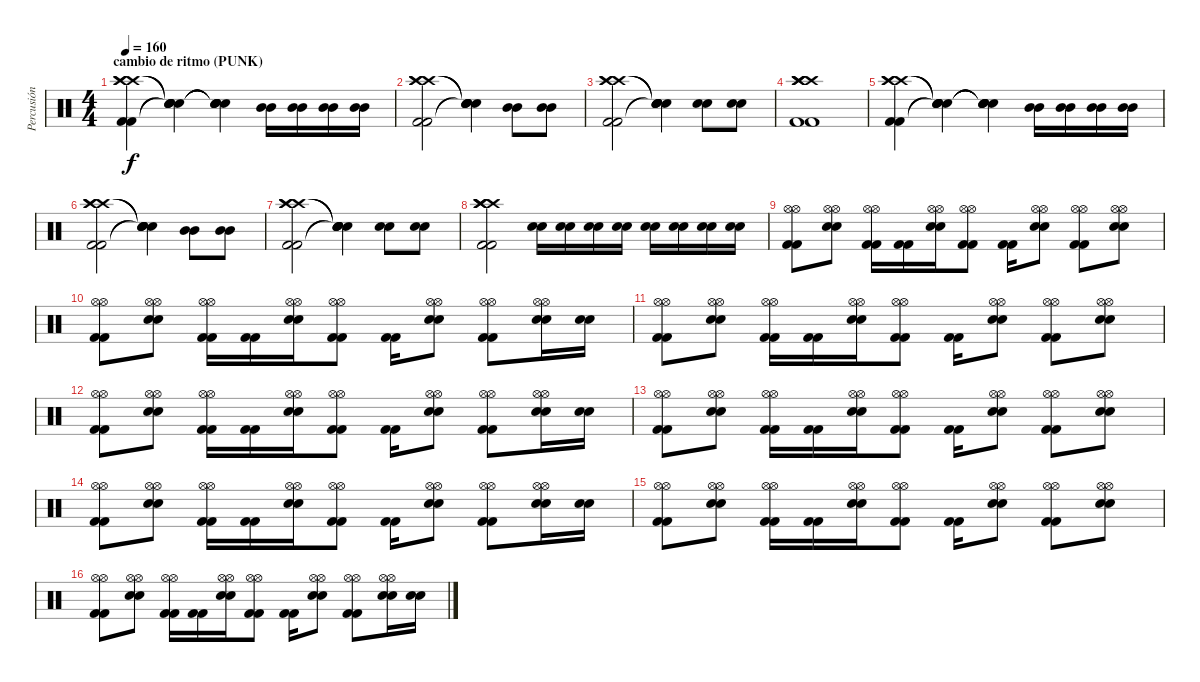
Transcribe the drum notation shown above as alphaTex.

\track ("Percusión" "Percusión") {instrument percussion}
\staff {score}
\articulation defaults
\ts (4 4)
\section ("" "cambio de ritmo (PUNK)")
\tempo 160
\clef neutral
\ks c
("Crash high (hit)" "Crash high (hit)" "Crash high (hit)" "Kick (hit) 2" "Kick (hit) 2").4{dy f} ("Snare (hit)"{t} "Snare (hit)"{t} "Snare (hit)"{t} "Snare (hit)"{t} "Snare (hit)"{t}).4 ("Snare (hit)"{t} "Snare (hit)"{t} "Snare (hit)"{t} "Snare (hit)"{t} "Snare (hit)"{t}).4 ("Mid Tom (hit)" "Mid Tom (hit)").16 ("Mid Tom (hit)" "Mid Tom (hit)").16 ("Mid Tom (hit)" "Mid Tom (hit)").16 ("Mid Tom (hit)" "Mid Tom (hit)").16 |
("Crash high (hit)" "Crash high (hit)" "Crash high (hit)" "Kick (hit) 2" "Kick (hit) 2").2 ("Snare (hit)"{t} "Snare (hit)"{t} "Snare (hit)"{t} "Snare (hit)"{t} "Snare (hit)"{t}).4 ("Mid Tom (hit)" "Mid Tom (hit)").8 ("Mid Tom (hit)" "Mid Tom (hit)").8 |
("Crash high (hit)" "Crash high (hit)" "Crash high (hit)" "Kick (hit) 2" "Kick (hit) 2").2 ("Snare (hit)"{t} "Snare (hit)"{t} "Snare (hit)"{t} "Snare (hit)"{t} "Snare (hit)"{t}).4 ("Snare (hit) 2" "Snare (hit) 2").8 ("Snare (hit) 2" "Snare (hit) 2").8 |
("Crash high (hit)" "Crash high (hit)" "Crash high (hit)" "Crash high (hit)" "Kick (hit) 2" "Kick (hit) 2").1 |
("Crash high (hit)" "Crash high (hit)" "Crash high (hit)" "Kick (hit) 2" "Kick (hit) 2").4 ("Snare (hit)"{t} "Snare (hit)"{t} "Snare (hit)"{t} "Snare (hit)"{t} "Snare (hit)"{t}).4 ("Snare (hit)"{t} "Snare (hit)"{t} "Snare (hit)"{t} "Snare (hit)"{t} "Snare (hit)"{t}).4 ("Mid Tom (hit)" "Mid Tom (hit)").16 ("Mid Tom (hit)" "Mid Tom (hit)").16 ("Mid Tom (hit)" "Mid Tom (hit)").16 ("Mid Tom (hit)" "Mid Tom (hit)").16 |
("Crash high (hit)" "Crash high (hit)" "Crash high (hit)" "Kick (hit) 2" "Kick (hit) 2").2 ("Snare (hit)"{t} "Snare (hit)"{t} "Snare (hit)"{t} "Snare (hit)"{t} "Snare (hit)"{t}).4 ("Mid Tom (hit)" "Mid Tom (hit)").8 ("Mid Tom (hit)" "Mid Tom (hit)").8 |
("Crash high (hit)" "Crash high (hit)" "Crash high (hit)" "Kick (hit) 2" "Kick (hit) 2").2 ("Snare (hit)"{t} "Snare (hit)"{t} "Snare (hit)"{t} "Snare (hit)"{t} "Snare (hit)"{t}).4 ("Snare (hit) 2" "Snare (hit) 2").8 ("Snare (hit) 2" "Snare (hit) 2").8 |
("Crash high (hit)" "Crash high (hit)" "Crash high (hit)" "Crash high (hit)" "Kick (hit) 2" "Kick (hit) 2").2 ("Snare (hit) 2" "Snare (hit) 2").16 ("Snare (hit) 2" "Snare (hit) 2").16 ("Snare (hit) 2" "Snare (hit) 2").16 ("Snare (hit) 2" "Snare (hit) 2").16 ("Snare (hit) 2" "Snare (hit) 2").16 ("Snare (hit) 2" "Snare (hit) 2").16 ("Snare (hit) 2" "Snare (hit) 2").16 ("Snare (hit) 2" "Snare (hit) 2").16 |
("Kick (hit) 2" "Kick (hit) 2" "Hi-Hat (open)" "Hi-Hat (open)").8 ("Snare (hit) 2" "Snare (hit) 2" "Hi-Hat (open)" "Hi-Hat (open)").8 ("Kick (hit) 2" "Kick (hit) 2" "Hi-Hat (open)" "Hi-Hat (open)").16 ("Kick (hit) 2" "Kick (hit) 2").16 ("Snare (hit) 2" "Snare (hit) 2" "Hi-Hat (open)" "Hi-Hat (open)").16 ("Kick (hit) 2" "Kick (hit) 2" "Hi-Hat (open)" "Hi-Hat (open)").8 ("Kick (hit) 2" "Kick (hit) 2").16 ("Snare (hit) 2" "Snare (hit) 2" "Hi-Hat (open)" "Hi-Hat (open)").8 ("Kick (hit) 2" "Kick (hit) 2" "Hi-Hat (open)" "Hi-Hat (open)").8 ("Snare (hit) 2" "Snare (hit) 2" "Hi-Hat (open)" "Hi-Hat (open)").8 |
("Kick (hit) 2" "Kick (hit) 2" "Hi-Hat (open)" "Hi-Hat (open)").8 ("Snare (hit) 2" "Snare (hit) 2" "Hi-Hat (open)" "Hi-Hat (open)").8 ("Kick (hit) 2" "Kick (hit) 2" "Hi-Hat (open)" "Hi-Hat (open)").16 ("Kick (hit) 2" "Kick (hit) 2").16 ("Snare (hit) 2" "Snare (hit) 2" "Hi-Hat (open)" "Hi-Hat (open)").16 ("Kick (hit) 2" "Kick (hit) 2" "Hi-Hat (open)" "Hi-Hat (open)").8 ("Kick (hit) 2" "Kick (hit) 2").16 ("Snare (hit) 2" "Snare (hit) 2" "Hi-Hat (open)" "Hi-Hat (open)").8 ("Kick (hit) 2" "Kick (hit) 2" "Hi-Hat (open)" "Hi-Hat (open)").8 ("Snare (hit) 2" "Snare (hit) 2" "Hi-Hat (open)" "Hi-Hat (open)").16 ("Snare (hit) 2" "Snare (hit) 2").16 |
("Kick (hit) 2" "Kick (hit) 2" "Hi-Hat (open)" "Hi-Hat (open)").8 ("Snare (hit) 2" "Snare (hit) 2" "Hi-Hat (open)" "Hi-Hat (open)").8 ("Kick (hit) 2" "Kick (hit) 2" "Hi-Hat (open)" "Hi-Hat (open)").16 ("Kick (hit) 2" "Kick (hit) 2").16 ("Snare (hit) 2" "Snare (hit) 2" "Hi-Hat (open)" "Hi-Hat (open)").16 ("Kick (hit) 2" "Kick (hit) 2" "Hi-Hat (open)" "Hi-Hat (open)").8 ("Kick (hit) 2" "Kick (hit) 2").16 ("Snare (hit) 2" "Snare (hit) 2" "Hi-Hat (open)" "Hi-Hat (open)").8 ("Kick (hit) 2" "Kick (hit) 2" "Hi-Hat (open)" "Hi-Hat (open)").8 ("Snare (hit) 2" "Snare (hit) 2" "Hi-Hat (open)" "Hi-Hat (open)").8 |
("Kick (hit) 2" "Kick (hit) 2" "Hi-Hat (open)" "Hi-Hat (open)").8 ("Snare (hit) 2" "Snare (hit) 2" "Hi-Hat (open)" "Hi-Hat (open)").8 ("Kick (hit) 2" "Kick (hit) 2" "Hi-Hat (open)" "Hi-Hat (open)").16 ("Kick (hit) 2" "Kick (hit) 2").16 ("Snare (hit) 2" "Snare (hit) 2" "Hi-Hat (open)" "Hi-Hat (open)").16 ("Kick (hit) 2" "Kick (hit) 2" "Hi-Hat (open)" "Hi-Hat (open)").8 ("Kick (hit) 2" "Kick (hit) 2").16 ("Snare (hit) 2" "Snare (hit) 2" "Hi-Hat (open)" "Hi-Hat (open)").8 ("Kick (hit) 2" "Kick (hit) 2" "Hi-Hat (open)" "Hi-Hat (open)").8 ("Snare (hit) 2" "Snare (hit) 2" "Hi-Hat (open)" "Hi-Hat (open)").16 ("Snare (hit) 2" "Snare (hit) 2").16 |
("Kick (hit) 2" "Kick (hit) 2" "Hi-Hat (open)" "Hi-Hat (open)").8 ("Snare (hit) 2" "Snare (hit) 2" "Hi-Hat (open)" "Hi-Hat (open)").8 ("Kick (hit) 2" "Kick (hit) 2" "Hi-Hat (open)" "Hi-Hat (open)").16 ("Kick (hit) 2" "Kick (hit) 2").16 ("Snare (hit) 2" "Snare (hit) 2" "Hi-Hat (open)" "Hi-Hat (open)").16 ("Kick (hit) 2" "Kick (hit) 2" "Hi-Hat (open)" "Hi-Hat (open)").8 ("Kick (hit) 2" "Kick (hit) 2").16 ("Snare (hit) 2" "Snare (hit) 2" "Hi-Hat (open)" "Hi-Hat (open)").8 ("Kick (hit) 2" "Kick (hit) 2" "Hi-Hat (open)" "Hi-Hat (open)").8 ("Snare (hit) 2" "Snare (hit) 2" "Hi-Hat (open)" "Hi-Hat (open)").8 |
("Kick (hit) 2" "Kick (hit) 2" "Hi-Hat (open)" "Hi-Hat (open)").8 ("Snare (hit) 2" "Snare (hit) 2" "Hi-Hat (open)" "Hi-Hat (open)").8 ("Kick (hit) 2" "Kick (hit) 2" "Hi-Hat (open)" "Hi-Hat (open)").16 ("Kick (hit) 2" "Kick (hit) 2").16 ("Snare (hit) 2" "Snare (hit) 2" "Hi-Hat (open)" "Hi-Hat (open)").16 ("Kick (hit) 2" "Kick (hit) 2" "Hi-Hat (open)" "Hi-Hat (open)").8 ("Kick (hit) 2" "Kick (hit) 2").16 ("Snare (hit) 2" "Snare (hit) 2" "Hi-Hat (open)" "Hi-Hat (open)").8 ("Kick (hit) 2" "Kick (hit) 2" "Hi-Hat (open)" "Hi-Hat (open)").8 ("Snare (hit) 2" "Snare (hit) 2" "Hi-Hat (open)" "Hi-Hat (open)").16 ("Snare (hit) 2" "Snare (hit) 2").16 |
("Kick (hit) 2" "Kick (hit) 2" "Hi-Hat (open)" "Hi-Hat (open)").8 ("Snare (hit) 2" "Snare (hit) 2" "Hi-Hat (open)" "Hi-Hat (open)").8 ("Kick (hit) 2" "Kick (hit) 2" "Hi-Hat (open)" "Hi-Hat (open)").16 ("Kick (hit) 2" "Kick (hit) 2").16 ("Snare (hit) 2" "Snare (hit) 2" "Hi-Hat (open)" "Hi-Hat (open)").16 ("Kick (hit) 2" "Kick (hit) 2" "Hi-Hat (open)" "Hi-Hat (open)").8 ("Kick (hit) 2" "Kick (hit) 2").16 ("Snare (hit) 2" "Snare (hit) 2" "Hi-Hat (open)" "Hi-Hat (open)").8 ("Kick (hit) 2" "Kick (hit) 2" "Hi-Hat (open)" "Hi-Hat (open)").8 ("Snare (hit) 2" "Snare (hit) 2" "Hi-Hat (open)" "Hi-Hat (open)").8 |
("Kick (hit) 2" "Kick (hit) 2" "Hi-Hat (open)" "Hi-Hat (open)").8 ("Snare (hit) 2" "Snare (hit) 2" "Hi-Hat (open)" "Hi-Hat (open)").8 ("Kick (hit) 2" "Kick (hit) 2" "Hi-Hat (open)" "Hi-Hat (open)").16 ("Kick (hit) 2" "Kick (hit) 2").16 ("Snare (hit) 2" "Snare (hit) 2" "Hi-Hat (open)" "Hi-Hat (open)").16 ("Kick (hit) 2" "Kick (hit) 2" "Hi-Hat (open)" "Hi-Hat (open)").8 ("Kick (hit) 2" "Kick (hit) 2").16 ("Snare (hit) 2" "Snare (hit) 2" "Hi-Hat (open)" "Hi-Hat (open)").8 ("Kick (hit) 2" "Kick (hit) 2" "Hi-Hat (open)" "Hi-Hat (open)").8 ("Snare (hit) 2" "Snare (hit) 2" "Hi-Hat (open)" "Hi-Hat (open)").16 ("Snare (hit) 2" "Snare (hit) 2").16
